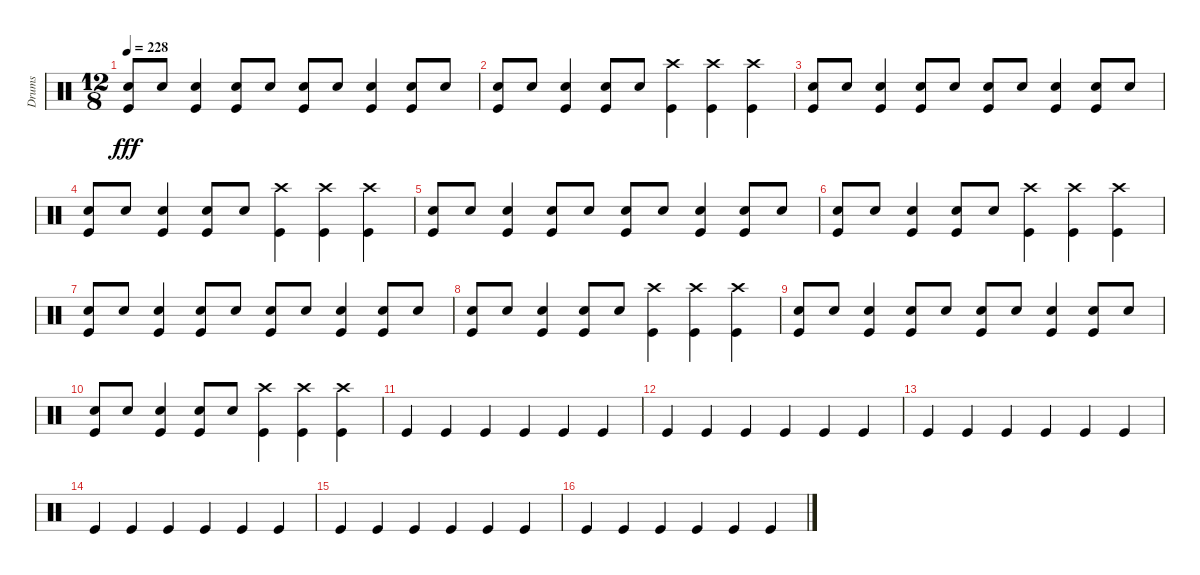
\track ("Drums" "Drums") {instrument percussion}
\staff {score}
\articulation defaults
\ts (12 8)
\tempo 228
\clef neutral
\ks c
("Snare (hit) 2" "Kick (hit)").8{dy fff} "Snare (hit) 2".8 ("Snare (hit) 2" "Kick (hit)").4 ("Snare (hit) 2" "Kick (hit)").8 "Snare (hit) 2".8 ("Snare (hit) 2" "Kick (hit)").8 "Snare (hit) 2".8 ("Snare (hit) 2" "Kick (hit)").4 ("Snare (hit) 2" "Kick (hit)").8 "Snare (hit) 2".8 |
("Snare (hit) 2" "Kick (hit)").8 "Snare (hit) 2".8 ("Snare (hit) 2" "Kick (hit)").4 ("Snare (hit) 2" "Kick (hit)").8 "Snare (hit) 2".8 ("Crash high (hit)" "Kick (hit)").4 ("Crash high (hit)" "Kick (hit)").4 ("Crash high (hit)" "Kick (hit)").4 |
("Snare (hit) 2" "Kick (hit)").8 "Snare (hit) 2".8 ("Snare (hit) 2" "Kick (hit)").4 ("Snare (hit) 2" "Kick (hit)").8 "Snare (hit) 2".8 ("Snare (hit) 2" "Kick (hit)").8 "Snare (hit) 2".8 ("Snare (hit) 2" "Kick (hit)").4 ("Snare (hit) 2" "Kick (hit)").8 "Snare (hit) 2".8 |
("Snare (hit) 2" "Kick (hit)").8 "Snare (hit) 2".8 ("Snare (hit) 2" "Kick (hit)").4 ("Snare (hit) 2" "Kick (hit)").8 "Snare (hit) 2".8 ("Crash high (hit)" "Kick (hit)").4 ("Crash high (hit)" "Kick (hit)").4 ("Crash high (hit)" "Kick (hit)").4 |
("Snare (hit) 2" "Kick (hit)").8 "Snare (hit) 2".8 ("Snare (hit) 2" "Kick (hit)").4 ("Snare (hit) 2" "Kick (hit)").8 "Snare (hit) 2".8 ("Snare (hit) 2" "Kick (hit)").8 "Snare (hit) 2".8 ("Snare (hit) 2" "Kick (hit)").4 ("Snare (hit) 2" "Kick (hit)").8 "Snare (hit) 2".8 |
("Snare (hit) 2" "Kick (hit)").8 "Snare (hit) 2".8 ("Snare (hit) 2" "Kick (hit)").4 ("Snare (hit) 2" "Kick (hit)").8 "Snare (hit) 2".8 ("Crash high (hit)" "Kick (hit)").4 ("Crash high (hit)" "Kick (hit)").4 ("Crash high (hit)" "Kick (hit)").4 |
("Snare (hit) 2" "Kick (hit)").8 "Snare (hit) 2".8 ("Snare (hit) 2" "Kick (hit)").4 ("Snare (hit) 2" "Kick (hit)").8 "Snare (hit) 2".8 ("Snare (hit) 2" "Kick (hit)").8 "Snare (hit) 2".8 ("Snare (hit) 2" "Kick (hit)").4 ("Snare (hit) 2" "Kick (hit)").8 "Snare (hit) 2".8 |
("Snare (hit) 2" "Kick (hit)").8 "Snare (hit) 2".8 ("Snare (hit) 2" "Kick (hit)").4 ("Snare (hit) 2" "Kick (hit)").8 "Snare (hit) 2".8 ("Crash high (hit)" "Kick (hit)").4 ("Crash high (hit)" "Kick (hit)").4 ("Crash high (hit)" "Kick (hit)").4 |
("Snare (hit) 2" "Kick (hit)").8 "Snare (hit) 2".8 ("Snare (hit) 2" "Kick (hit)").4 ("Snare (hit) 2" "Kick (hit)").8 "Snare (hit) 2".8 ("Snare (hit) 2" "Kick (hit)").8 "Snare (hit) 2".8 ("Snare (hit) 2" "Kick (hit)").4 ("Snare (hit) 2" "Kick (hit)").8 "Snare (hit) 2".8 |
("Snare (hit) 2" "Kick (hit)").8 "Snare (hit) 2".8 ("Snare (hit) 2" "Kick (hit)").4 ("Snare (hit) 2" "Kick (hit)").8 "Snare (hit) 2".8 ("Crash high (hit)" "Kick (hit)").4 ("Crash high (hit)" "Kick (hit)").4 ("Crash high (hit)" "Kick (hit)").4 |
"Kick (hit)".4 "Kick (hit)".4 "Kick (hit)".4 "Kick (hit)".4 "Kick (hit)".4 "Kick (hit)".4 |
"Kick (hit)".4 "Kick (hit)".4 "Kick (hit)".4 "Kick (hit)".4 "Kick (hit)".4 "Kick (hit)".4 |
"Kick (hit)".4 "Kick (hit)".4 "Kick (hit)".4 "Kick (hit)".4 "Kick (hit)".4 "Kick (hit)".4 |
"Kick (hit)".4 "Kick (hit)".4 "Kick (hit)".4 "Kick (hit)".4 "Kick (hit)".4 "Kick (hit)".4 |
"Kick (hit)".4 "Kick (hit)".4 "Kick (hit)".4 "Kick (hit)".4 "Kick (hit)".4 "Kick (hit)".4 |
"Kick (hit)".4 "Kick (hit)".4 "Kick (hit)".4 "Kick (hit)".4 "Kick (hit)".4 "Kick (hit)".4
